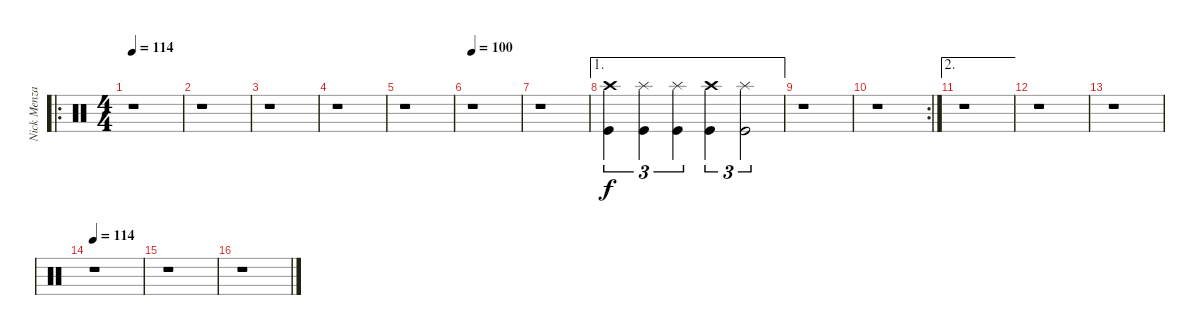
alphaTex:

\track ("Nick Menza" "Nick Menza") {instrument percussion}
\staff {score}
\articulation defaults
\ro
\ts (4 4)
\tempo 114
\clef neutral
\ks c
r.1{dy f} |
r.1 |
r.1 |
r.1 |
r.1 |
\tempo 100
r.1 |
r.1 |
\ae 1
("Crash high (hit)" "Kick (hit)").4{tu (3 2)} ("Splash (hit)" "Kick (hit)").4{tu (3 2)} ("Splash (hit)" "Kick (hit)").4{tu (3 2)} ("Crash high (hit)" "Kick (hit)").4{tu (3 2)} ("Splash (hit)" "Kick (hit)").2{tu (3 2)} |
r.1 |
\rc 2
r.1 |
\ae 2
r.1 |
r.1 |
r.1 |
\tempo 114
r.1 |
r.1 |
r.1
